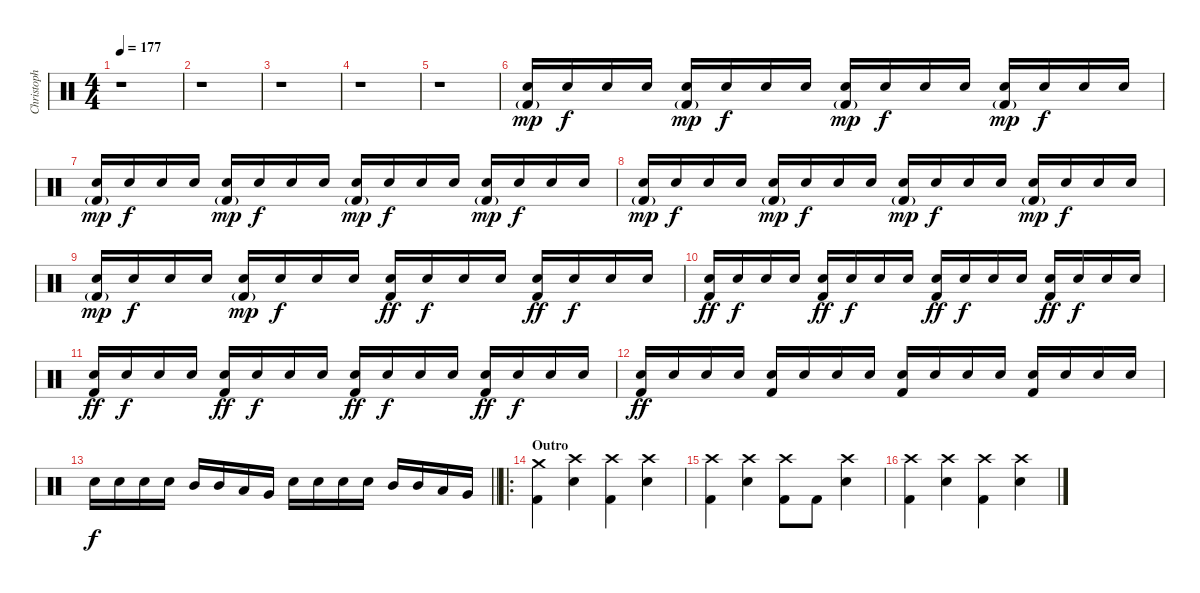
\track ("Christoph Schneider [drums]" "Christoph ") {instrument percussion}
\staff {score}
\articulation defaults
\ts (4 4)
\tempo 177
\clef neutral
\ks c
r.1{dy f} |
r.1 |
r.1 |
r.1 |
r.1 |
("Snare (hit) 2" "Kick (hit) 2"{g}).16{dy mp volume 3} "Snare (hit) 2".16{dy f} "Snare (hit) 2".16 "Snare (hit) 2".16 ("Snare (hit) 2" "Kick (hit) 2"{g}).16{dy mp volume 10} "Snare (hit) 2".16{dy f} "Snare (hit) 2".16 "Snare (hit) 2".16 ("Snare (hit) 2" "Kick (hit) 2"{g}).16{dy mp} "Snare (hit) 2".16{dy f} "Snare (hit) 2".16 "Snare (hit) 2".16 ("Snare (hit) 2" "Kick (hit) 2"{g}).16{dy mp} "Snare (hit) 2".16{dy f} "Snare (hit) 2".16 "Snare (hit) 2".16 |
("Snare (hit) 2" "Kick (hit) 2"{g}).16{dy mp} "Snare (hit) 2".16{dy f} "Snare (hit) 2".16 "Snare (hit) 2".16 ("Snare (hit) 2" "Kick (hit) 2"{g}).16{dy mp} "Snare (hit) 2".16{dy f} "Snare (hit) 2".16 "Snare (hit) 2".16 ("Snare (hit) 2" "Kick (hit) 2"{g}).16{dy mp} "Snare (hit) 2".16{dy f} "Snare (hit) 2".16 "Snare (hit) 2".16 ("Snare (hit) 2" "Kick (hit) 2"{g}).16{dy mp} "Snare (hit) 2".16{dy f} "Snare (hit) 2".16 "Snare (hit) 2".16 |
("Snare (hit) 2" "Kick (hit) 2"{g}).16{dy mp} "Snare (hit) 2".16{dy f} "Snare (hit) 2".16 "Snare (hit) 2".16 ("Snare (hit) 2" "Kick (hit) 2"{g}).16{dy mp} "Snare (hit) 2".16{dy f} "Snare (hit) 2".16 "Snare (hit) 2".16 ("Snare (hit) 2" "Kick (hit) 2"{g}).16{dy mp} "Snare (hit) 2".16{dy f} "Snare (hit) 2".16 "Snare (hit) 2".16 ("Snare (hit) 2" "Kick (hit) 2"{g}).16{dy mp} "Snare (hit) 2".16{dy f} "Snare (hit) 2".16 "Snare (hit) 2".16 |
("Snare (hit) 2" "Kick (hit) 2"{g}).16{dy mp volume 16} "Snare (hit) 2".16{dy f} "Snare (hit) 2".16 "Snare (hit) 2".16 ("Snare (hit) 2" "Kick (hit) 2"{g}).16{dy mp} "Snare (hit) 2".16{dy f} "Snare (hit) 2".16 "Snare (hit) 2".16 ("Snare (hit) 2" "Kick (hit) 2").16{dy ff} "Snare (hit) 2".16{dy f} "Snare (hit) 2".16 "Snare (hit) 2".16 ("Snare (hit) 2" "Kick (hit) 2").16{dy ff} "Snare (hit) 2".16{dy f} "Snare (hit) 2".16 "Snare (hit) 2".16 |
("Snare (hit) 2" "Kick (hit) 2").16{dy ff} "Snare (hit) 2".16{dy f} "Snare (hit) 2".16 "Snare (hit) 2".16 ("Snare (hit) 2" "Kick (hit) 2").16{dy ff} "Snare (hit) 2".16{dy f} "Snare (hit) 2".16 "Snare (hit) 2".16 ("Snare (hit) 2" "Kick (hit) 2").16{dy ff} "Snare (hit) 2".16{dy f} "Snare (hit) 2".16 "Snare (hit) 2".16 ("Snare (hit) 2" "Kick (hit) 2").16{dy ff} "Snare (hit) 2".16{dy f} "Snare (hit) 2".16 "Snare (hit) 2".16 |
("Snare (hit) 2" "Kick (hit) 2").16{dy ff} "Snare (hit) 2".16{dy f} "Snare (hit) 2".16 "Snare (hit) 2".16 ("Snare (hit) 2" "Kick (hit) 2").16{dy ff} "Snare (hit) 2".16{dy f} "Snare (hit) 2".16 "Snare (hit) 2".16 ("Snare (hit) 2" "Kick (hit) 2").16{dy ff} "Snare (hit) 2".16{dy f} "Snare (hit) 2".16 "Snare (hit) 2".16 ("Snare (hit) 2" "Kick (hit) 2").16{dy ff} "Snare (hit) 2".16{dy f} "Snare (hit) 2".16 "Snare (hit) 2".16 |
("Snare (hit) 2" "Kick (hit) 2").16{dy ff} "Snare (hit) 2".16 "Snare (hit) 2".16 "Snare (hit) 2".16 ("Snare (hit) 2" "Kick (hit) 2").16 "Snare (hit) 2".16 "Snare (hit) 2".16 "Snare (hit) 2".16 ("Snare (hit) 2" "Kick (hit) 2").16 "Snare (hit) 2".16 "Snare (hit) 2".16 "Snare (hit) 2".16 ("Snare (hit) 2" "Kick (hit) 2").16 "Snare (hit) 2".16 "Snare (hit) 2".16 "Snare (hit) 2".16 |
\barLineRight lightlight "Snare (hit) 2".16{dy f} "Snare (hit) 2".16 "Snare (hit) 2".16 "Snare (hit) 2".16 "Mid Tom (hit)".16 "Mid Tom (hit)".16 "Low Tom (hit)".16 "Very Low Tom (hit)".16 "Snare (hit) 2".16 "Snare (hit) 2".16 "Snare (hit) 2".16 "Snare (hit) 2".16 "Mid Tom (hit)".16 "Mid Tom (hit)".16 "Low Tom (hit)".16 "Very Low Tom (hit)".16
|
\ro
\section ("" "Outro")
("Crash medium (hit)" "Kick (hit) 2").4 ("Crash high (hit)" "Snare (hit) 2").4 ("Crash high (hit)" "Kick (hit) 2").4 ("Crash high (hit)" "Snare (hit) 2").4 |
("Crash high (hit)" "Kick (hit) 2").4 ("Crash high (hit)" "Snare (hit) 2").4 ("Crash high (hit)" "Kick (hit) 2").8 "Kick (hit) 2".8 ("Crash high (hit)" "Snare (hit) 2").4 |
("Crash high (hit)" "Kick (hit) 2").4 ("Crash high (hit)" "Snare (hit) 2").4 ("Crash high (hit)" "Kick (hit) 2").4 ("Crash high (hit)" "Snare (hit) 2").4
